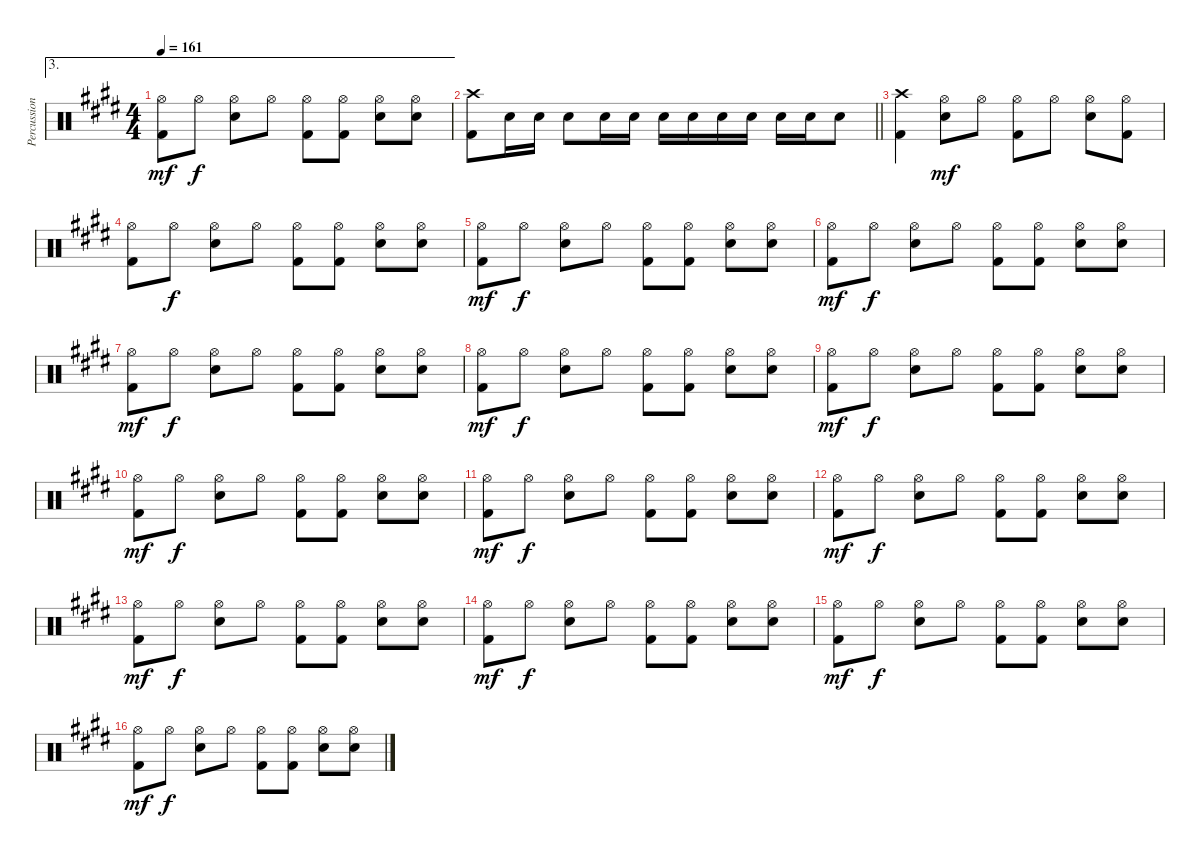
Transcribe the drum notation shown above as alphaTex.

\track ("Percussion" "Percussion") {instrument percussion}
\staff {score}
\articulation defaults
\ae 3
\ts (4 4)
\tempo 161
\clef neutral
\ks e
("Hi-Hat (open)" "Kick (hit) 2").8{dy mf} "Hi-Hat (open)".8{dy f} ("Hi-Hat (open)" "Snare (hit) 2").8 "Hi-Hat (open)".8 ("Hi-Hat (open)" "Kick (hit) 2").8 ("Hi-Hat (open)" "Kick (hit) 2").8 ("Hi-Hat (open)" "Snare (hit) 2").8 ("Hi-Hat (open)" "Snare (hit) 2").8 |
\barLineRight lightlight
("Crash high (hit)" "Kick (hit) 2").8 "Snare (hit) 2".16 "Snare (hit) 2".16 "Snare (hit) 2".8 "Snare (hit) 2".16 "Snare (hit) 2".16 "Snare (hit) 2".16 "Snare (hit) 2".16 "Snare (hit) 2".16 "Snare (hit) 2".16 "Snare (hit) 2".16 "Snare (hit) 2".16 "Snare (hit) 2".8 |
("Crash high (hit)" "Kick (hit) 2").4 ("Snare (hit) 2" "Hi-Hat (open)").8{dy mf} "Hi-Hat (open)".8 ("Kick (hit) 2" "Hi-Hat (open)").8 "Hi-Hat (open)".8 ("Snare (hit) 2" "Hi-Hat (open)").8 ("Kick (hit) 2" "Hi-Hat (open)").8 |
("Hi-Hat (open)" "Kick (hit) 2").8 "Hi-Hat (open)".8{dy f} ("Hi-Hat (open)" "Snare (hit) 2").8 "Hi-Hat (open)".8 ("Hi-Hat (open)" "Kick (hit) 2").8 ("Hi-Hat (open)" "Kick (hit) 2").8 ("Hi-Hat (open)" "Snare (hit) 2").8 ("Hi-Hat (open)" "Snare (hit) 2").8 |
("Hi-Hat (open)" "Kick (hit) 2").8{dy mf} "Hi-Hat (open)".8{dy f} ("Hi-Hat (open)" "Snare (hit) 2").8 "Hi-Hat (open)".8 ("Hi-Hat (open)" "Kick (hit) 2").8 ("Hi-Hat (open)" "Kick (hit) 2").8 ("Hi-Hat (open)" "Snare (hit) 2").8 ("Hi-Hat (open)" "Snare (hit) 2").8 |
("Hi-Hat (open)" "Kick (hit) 2").8{dy mf} "Hi-Hat (open)".8{dy f} ("Hi-Hat (open)" "Snare (hit) 2").8 "Hi-Hat (open)".8 ("Hi-Hat (open)" "Kick (hit) 2").8 ("Hi-Hat (open)" "Kick (hit) 2").8 ("Hi-Hat (open)" "Snare (hit) 2").8 ("Hi-Hat (open)" "Snare (hit) 2").8 |
("Hi-Hat (open)" "Kick (hit) 2").8{dy mf} "Hi-Hat (open)".8{dy f} ("Hi-Hat (open)" "Snare (hit) 2").8 "Hi-Hat (open)".8 ("Hi-Hat (open)" "Kick (hit) 2").8 ("Hi-Hat (open)" "Kick (hit) 2").8 ("Hi-Hat (open)" "Snare (hit) 2").8 ("Hi-Hat (open)" "Snare (hit) 2").8 |
("Hi-Hat (open)" "Kick (hit) 2").8{dy mf} "Hi-Hat (open)".8{dy f} ("Hi-Hat (open)" "Snare (hit) 2").8 "Hi-Hat (open)".8 ("Hi-Hat (open)" "Kick (hit) 2").8 ("Hi-Hat (open)" "Kick (hit) 2").8 ("Hi-Hat (open)" "Snare (hit) 2").8 ("Hi-Hat (open)" "Snare (hit) 2").8 |
("Hi-Hat (open)" "Kick (hit) 2").8{dy mf} "Hi-Hat (open)".8{dy f} ("Hi-Hat (open)" "Snare (hit) 2").8 "Hi-Hat (open)".8 ("Hi-Hat (open)" "Kick (hit) 2").8 ("Hi-Hat (open)" "Kick (hit) 2").8 ("Hi-Hat (open)" "Snare (hit) 2").8 ("Hi-Hat (open)" "Snare (hit) 2").8 |
("Hi-Hat (open)" "Kick (hit) 2").8{dy mf} "Hi-Hat (open)".8{dy f} ("Hi-Hat (open)" "Snare (hit) 2").8 "Hi-Hat (open)".8 ("Hi-Hat (open)" "Kick (hit) 2").8 ("Hi-Hat (open)" "Kick (hit) 2").8 ("Hi-Hat (open)" "Snare (hit) 2").8 ("Hi-Hat (open)" "Snare (hit) 2").8 |
("Hi-Hat (open)" "Kick (hit) 2").8{dy mf} "Hi-Hat (open)".8{dy f} ("Hi-Hat (open)" "Snare (hit) 2").8 "Hi-Hat (open)".8 ("Hi-Hat (open)" "Kick (hit) 2").8 ("Hi-Hat (open)" "Kick (hit) 2").8 ("Hi-Hat (open)" "Snare (hit) 2").8 ("Hi-Hat (open)" "Snare (hit) 2").8 |
("Hi-Hat (open)" "Kick (hit) 2").8{dy mf} "Hi-Hat (open)".8{dy f} ("Hi-Hat (open)" "Snare (hit) 2").8 "Hi-Hat (open)".8 ("Hi-Hat (open)" "Kick (hit) 2").8 ("Hi-Hat (open)" "Kick (hit) 2").8 ("Hi-Hat (open)" "Snare (hit) 2").8 ("Hi-Hat (open)" "Snare (hit) 2").8 |
("Hi-Hat (open)" "Kick (hit) 2").8{dy mf} "Hi-Hat (open)".8{dy f} ("Hi-Hat (open)" "Snare (hit) 2").8 "Hi-Hat (open)".8 ("Hi-Hat (open)" "Kick (hit) 2").8 ("Hi-Hat (open)" "Kick (hit) 2").8 ("Hi-Hat (open)" "Snare (hit) 2").8 ("Hi-Hat (open)" "Snare (hit) 2").8 |
("Hi-Hat (open)" "Kick (hit) 2").8{dy mf} "Hi-Hat (open)".8{dy f} ("Hi-Hat (open)" "Snare (hit) 2").8 "Hi-Hat (open)".8 ("Hi-Hat (open)" "Kick (hit) 2").8 ("Hi-Hat (open)" "Kick (hit) 2").8 ("Hi-Hat (open)" "Snare (hit) 2").8 ("Hi-Hat (open)" "Snare (hit) 2").8 |
("Hi-Hat (open)" "Kick (hit) 2").8{dy mf} "Hi-Hat (open)".8{dy f} ("Hi-Hat (open)" "Snare (hit) 2").8 "Hi-Hat (open)".8 ("Hi-Hat (open)" "Kick (hit) 2").8 ("Hi-Hat (open)" "Kick (hit) 2").8 ("Hi-Hat (open)" "Snare (hit) 2").8 ("Hi-Hat (open)" "Snare (hit) 2").8 |
("Hi-Hat (open)" "Kick (hit) 2").8{dy mf} "Hi-Hat (open)".8{dy f} ("Hi-Hat (open)" "Snare (hit) 2").8 "Hi-Hat (open)".8 ("Hi-Hat (open)" "Kick (hit) 2").8 ("Hi-Hat (open)" "Kick (hit) 2").8 ("Hi-Hat (open)" "Snare (hit) 2").8 ("Hi-Hat (open)" "Snare (hit) 2").8
